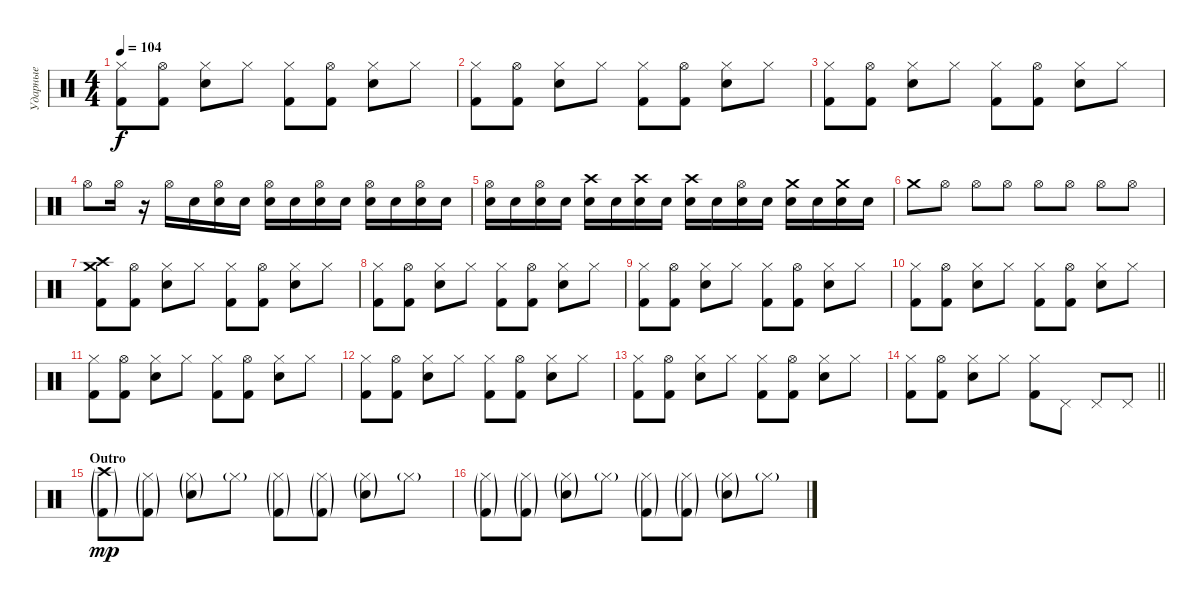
\track ("Ударные" "Ударные") {instrument percussion}
\staff {score}
\articulation defaults
\ts (4 4)
\tempo 104
\clef neutral
\ks c
("Hi-Hat (closed)" "Kick (hit) 2").8{dy f} ("Hi-Hat (open)" "Kick (hit) 2").8 ("Hi-Hat (closed)" "Electric Snare (hit)").8 "Hi-Hat (closed)".8 ("Hi-Hat (closed)" "Kick (hit) 2").8 ("Hi-Hat (open)" "Kick (hit) 2").8 ("Hi-Hat (closed)" "Electric Snare (hit)").8 "Hi-Hat (closed)".8 |
("Hi-Hat (closed)" "Kick (hit) 2").8 ("Hi-Hat (open)" "Kick (hit) 2").8 ("Hi-Hat (closed)" "Electric Snare (hit)").8 "Hi-Hat (closed)".8 ("Hi-Hat (closed)" "Kick (hit) 2").8 ("Hi-Hat (open)" "Kick (hit) 2").8 ("Hi-Hat (closed)" "Electric Snare (hit)").8 "Hi-Hat (closed)".8 |
("Hi-Hat (closed)" "Kick (hit) 2").8 ("Hi-Hat (open)" "Kick (hit) 2").8 ("Hi-Hat (closed)" "Electric Snare (hit)").8 "Hi-Hat (closed)".8 ("Hi-Hat (closed)" "Kick (hit) 2").8 ("Hi-Hat (open)" "Kick (hit) 2").8 ("Hi-Hat (closed)" "Electric Snare (hit)").8 "Hi-Hat (closed)".8 |
"Hi-Hat (open)".8{volume 5} "Hi-Hat (open)".16 r.16 "Hi-Hat (open)".16 "Electric Snare (hit)".16 ("Hi-Hat (open)" "Electric Snare (hit)").16 "Electric Snare (hit)".16 ("Hi-Hat (open)" "Electric Snare (hit)").16 "Electric Snare (hit)".16 ("Hi-Hat (open)" "Electric Snare (hit)").16 "Electric Snare (hit)".16 ("Hi-Hat (open)" "Electric Snare (hit)").16 "Electric Snare (hit)".16 ("Hi-Hat (open)" "Electric Snare (hit)").16 "Electric Snare (hit)".16 |
("Hi-Hat (open)" "Electric Snare (hit)").16 "Electric Snare (hit)".16 ("Hi-Hat (open)" "Electric Snare (hit)").16 "Electric Snare (hit)".16 ("Crash high (hit)" "Electric Snare (hit)").16 "Electric Snare (hit)".16 ("Crash high (hit)" "Electric Snare (hit)").16 "Electric Snare (hit)".16 ("Crash high (hit)" "Electric Snare (hit)").16 "Electric Snare (hit)".16 ("Hi-Hat (open)" "Electric Snare (hit)").16 "Electric Snare (hit)".16 ("Crash medium (hit)" "Electric Snare (hit)").16 "Electric Snare (hit)".16 ("Crash medium (hit)" "Electric Snare (hit)").16 "Electric Snare (hit)".16 |
"Crash medium (hit)".8 "Hi-Hat (open)".8 "Hi-Hat (open)".8 "Hi-Hat (open)".8 "Hi-Hat (open)".8 "Hi-Hat (open)".8 "Hi-Hat (open)".8 "Hi-Hat (open)".8 |
("Crash high (hit)" "Crash medium (hit)" "Kick (hit) 2").8{volume 16} ("Hi-Hat (open)" "Kick (hit) 2").8 ("Hi-Hat (closed)" "Electric Snare (hit)").8 "Hi-Hat (closed)".8 ("Hi-Hat (closed)" "Kick (hit) 2").8 ("Hi-Hat (open)" "Kick (hit) 2").8 ("Hi-Hat (closed)" "Electric Snare (hit)").8 "Hi-Hat (closed)".8 |
("Hi-Hat (closed)" "Kick (hit) 2").8 ("Hi-Hat (open)" "Kick (hit) 2").8 ("Hi-Hat (closed)" "Electric Snare (hit)").8 "Hi-Hat (closed)".8 ("Hi-Hat (closed)" "Kick (hit) 2").8 ("Hi-Hat (open)" "Kick (hit) 2").8 ("Hi-Hat (closed)" "Electric Snare (hit)").8 "Hi-Hat (closed)".8 |
("Hi-Hat (closed)" "Kick (hit) 2").8 ("Hi-Hat (open)" "Kick (hit) 2").8 ("Hi-Hat (closed)" "Electric Snare (hit)").8 "Hi-Hat (closed)".8 ("Hi-Hat (closed)" "Kick (hit) 2").8 ("Hi-Hat (open)" "Kick (hit) 2").8 ("Hi-Hat (closed)" "Electric Snare (hit)").8 "Hi-Hat (closed)".8 |
("Hi-Hat (closed)" "Kick (hit) 2").8 ("Hi-Hat (open)" "Kick (hit) 2").8 ("Hi-Hat (closed)" "Electric Snare (hit)").8 "Hi-Hat (closed)".8 ("Hi-Hat (closed)" "Kick (hit) 2").8 ("Hi-Hat (open)" "Kick (hit) 2").8 ("Hi-Hat (closed)" "Electric Snare (hit)").8 "Hi-Hat (closed)".8 |
("Hi-Hat (closed)" "Kick (hit) 2").8 ("Hi-Hat (open)" "Kick (hit) 2").8 ("Hi-Hat (closed)" "Electric Snare (hit)").8 "Hi-Hat (closed)".8 ("Hi-Hat (closed)" "Kick (hit) 2").8 ("Hi-Hat (open)" "Kick (hit) 2").8 ("Hi-Hat (closed)" "Electric Snare (hit)").8 "Hi-Hat (closed)".8 |
("Hi-Hat (closed)" "Kick (hit) 2").8 ("Hi-Hat (open)" "Kick (hit) 2").8 ("Hi-Hat (closed)" "Electric Snare (hit)").8 "Hi-Hat (closed)".8 ("Hi-Hat (closed)" "Kick (hit) 2").8 ("Hi-Hat (open)" "Kick (hit) 2").8 ("Hi-Hat (closed)" "Electric Snare (hit)").8 "Hi-Hat (closed)".8 |
("Hi-Hat (closed)" "Kick (hit) 2").8 ("Hi-Hat (open)" "Kick (hit) 2").8 ("Hi-Hat (closed)" "Electric Snare (hit)").8 "Hi-Hat (closed)".8 ("Hi-Hat (closed)" "Kick (hit) 2").8 ("Hi-Hat (open)" "Kick (hit) 2").8 ("Hi-Hat (closed)" "Electric Snare (hit)").8 "Hi-Hat (closed)".8 |
\barLineRight lightlight
("Hi-Hat (closed)" "Kick (hit) 2").8 ("Hi-Hat (open)" "Kick (hit) 2").8 ("Hi-Hat (closed)" "Electric Snare (hit)").8 "Hi-Hat (closed)".8 ("Hi-Hat (closed)" "Kick (hit) 2").8 "Pedal Hi-Hat (hit)".8 "Pedal Hi-Hat (hit)".8 "Pedal Hi-Hat (hit)".8 |
\section ("" "Outro")
("Crash high (hit)"{g} "Kick (hit) 2"{g}).8{dy mp} ("Hi-Hat (closed)"{g} "Kick (hit) 2"{g}).8 ("Hi-Hat (closed)"{g} "Electric Snare (hit)"{g}).8 "Hi-Hat (closed)"{g}.8 ("Hi-Hat (closed)"{g} "Kick (hit) 2"{g}).8 ("Hi-Hat (closed)"{g} "Kick (hit) 2"{g}).8 ("Hi-Hat (closed)"{g} "Electric Snare (hit)"{g}).8 "Hi-Hat (closed)"{g}.8 |
("Hi-Hat (closed)"{g} "Kick (hit) 2"{g}).8 ("Hi-Hat (closed)"{g} "Kick (hit) 2"{g}).8 ("Hi-Hat (closed)"{g} "Electric Snare (hit)"{g}).8 "Hi-Hat (closed)"{g}.8 ("Hi-Hat (closed)"{g} "Kick (hit) 2"{g}).8 ("Hi-Hat (closed)"{g} "Kick (hit) 2"{g}).8 ("Hi-Hat (closed)"{g} "Electric Snare (hit)"{g}).8 "Hi-Hat (closed)"{g}.8
